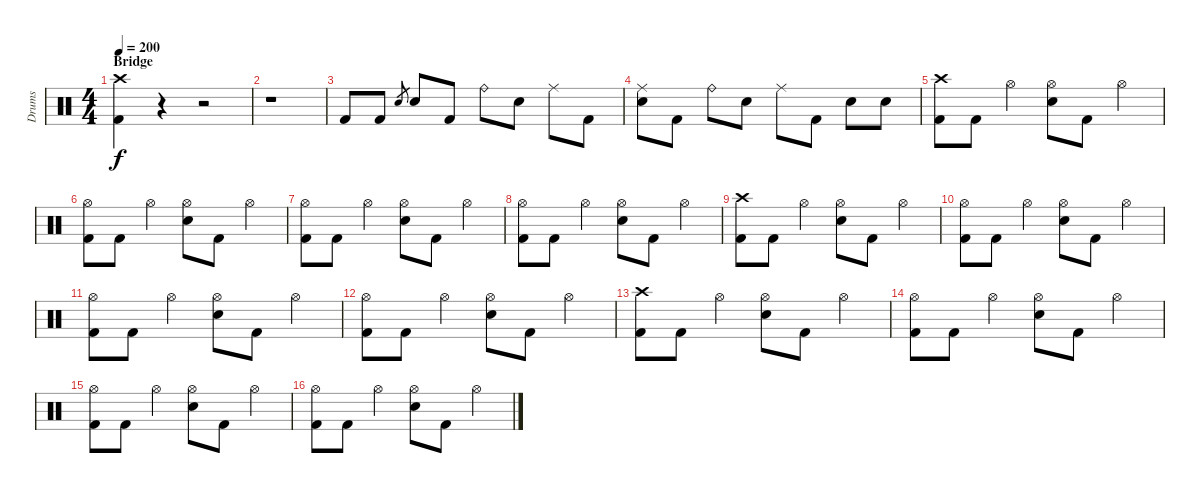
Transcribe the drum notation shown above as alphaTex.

\track ("Drums" "Drums") {instrument percussion}
\staff {score}
\articulation defaults
\ts (4 4)
\section ("" "Bridge")
\tempo 200
\clef neutral
\ks c
("Crash high (hit)" "Kick (hit) 2").4{dy f} r.4 r.2 |
r.1 |
"Kick (hit) 2".8 "Kick (hit) 2".8 "Electric Snare (hit)".8{gr} "Electric Snare (hit)".8 "Kick (hit) 2".8 "Ride (bell)".8 "Electric Snare (hit)".8 "Ride (middle)".8 "Kick (hit) 2".8 |
("Ride (middle)" "Electric Snare (hit)").8 "Kick (hit) 2".8 "Ride (bell)".8 "Electric Snare (hit)".8 "Ride (middle)".8 "Kick (hit) 2".8 "Electric Snare (hit)".8 "Electric Snare (hit)".8 |
("Crash high (hit)" "Kick (hit) 2").8 "Kick (hit) 2".8 "Hi-Hat (open)".4 ("Hi-Hat (open)" "Electric Snare (hit)").8 "Kick (hit) 2".8 "Hi-Hat (open)".4 |
("Hi-Hat (open)" "Kick (hit) 2").8 "Kick (hit) 2".8 "Hi-Hat (open)".4 ("Hi-Hat (open)" "Electric Snare (hit)").8 "Kick (hit) 2".8 "Hi-Hat (open)".4 |
("Hi-Hat (open)" "Kick (hit) 2").8 "Kick (hit) 2".8 "Hi-Hat (open)".4 ("Hi-Hat (open)" "Electric Snare (hit)").8 "Kick (hit) 2".8 "Hi-Hat (open)".4 |
("Hi-Hat (open)" "Kick (hit) 2").8 "Kick (hit) 2".8 "Hi-Hat (open)".4 ("Hi-Hat (open)" "Electric Snare (hit)").8 "Kick (hit) 2".8 "Hi-Hat (open)".4 |
("Crash high (hit)" "Kick (hit) 2").8 "Kick (hit) 2".8 "Hi-Hat (open)".4 ("Hi-Hat (open)" "Electric Snare (hit)").8 "Kick (hit) 2".8 "Hi-Hat (open)".4 |
("Hi-Hat (open)" "Kick (hit) 2").8 "Kick (hit) 2".8 "Hi-Hat (open)".4 ("Hi-Hat (open)" "Electric Snare (hit)").8 "Kick (hit) 2".8 "Hi-Hat (open)".4 |
("Hi-Hat (open)" "Kick (hit) 2").8 "Kick (hit) 2".8 "Hi-Hat (open)".4 ("Hi-Hat (open)" "Electric Snare (hit)").8 "Kick (hit) 2".8 "Hi-Hat (open)".4 |
("Hi-Hat (open)" "Kick (hit) 2").8 "Kick (hit) 2".8 "Hi-Hat (open)".4 ("Hi-Hat (open)" "Electric Snare (hit)").8 "Kick (hit) 2".8 "Hi-Hat (open)".4 |
("Crash high (hit)" "Kick (hit) 2").8 "Kick (hit) 2".8 "Hi-Hat (open)".4 ("Hi-Hat (open)" "Electric Snare (hit)").8 "Kick (hit) 2".8 "Hi-Hat (open)".4 |
("Hi-Hat (open)" "Kick (hit) 2").8 "Kick (hit) 2".8 "Hi-Hat (open)".4 ("Hi-Hat (open)" "Electric Snare (hit)").8 "Kick (hit) 2".8 "Hi-Hat (open)".4 |
("Hi-Hat (open)" "Kick (hit) 2").8 "Kick (hit) 2".8 "Hi-Hat (open)".4 ("Hi-Hat (open)" "Electric Snare (hit)").8 "Kick (hit) 2".8 "Hi-Hat (open)".4 |
("Hi-Hat (open)" "Kick (hit) 2").8 "Kick (hit) 2".8 "Hi-Hat (open)".4 ("Hi-Hat (open)" "Electric Snare (hit)").8 "Kick (hit) 2".8 "Hi-Hat (open)".4
